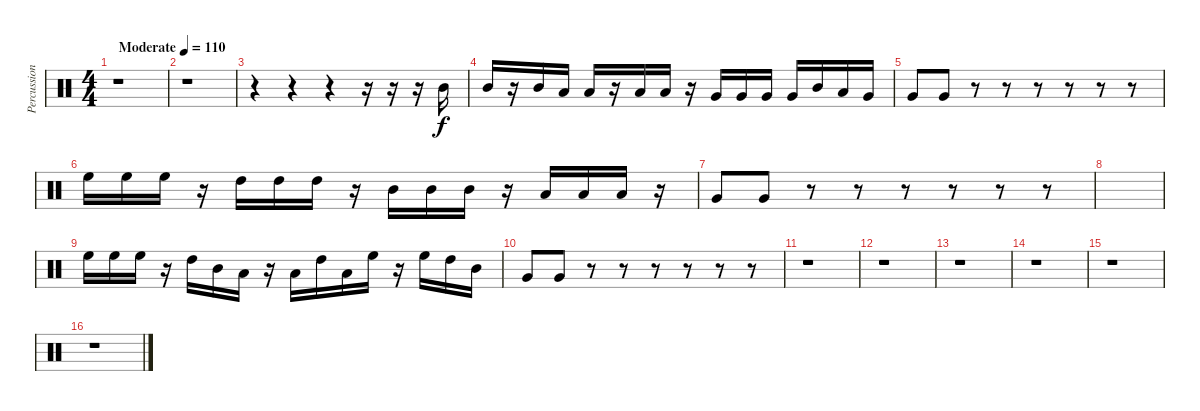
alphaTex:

\track ("Percussion" "Percussion") {instrument percussion}
\staff {score}
\articulation defaults
\ts (4 4)
\tempo (110 "Moderate")
\clef neutral
\ks c
r.1{dy f} |
r.1 |
r.4 r.4 r.4 r.16 r.16 r.16 "Mid Tom (hit)".16 |
"Mid Tom (hit)".16 r.16 "Mid Tom (hit)".16 "Low Tom (hit)".16 "Low Tom (hit)".16 r.16 "Low Tom (hit)".16 "Low Tom (hit)".16 r.16 "Very Low Tom (hit)".16 "Very Low Tom (hit)".16 "Very Low Tom (hit)".16 "Very Low Tom (hit)".16 "Mid Tom (hit)".16 "Low Tom (hit)".16 "Very Low Tom (hit)".16 |
"Very Low Tom (hit)".8 "Very Low Tom (hit)".8 r.8 r.8 r.8 r.8 r.8 r.8 |
"High Floor Tom (hit)".16 "High Floor Tom (hit)".16 "High Floor Tom (hit)".16 r.16 "High Tom (hit)".16 "High Tom (hit)".16 "High Tom (hit)".16 r.16 "Mid Tom (hit)".16 "Mid Tom (hit)".16 "Mid Tom (hit)".16 r.16 "Low Tom (hit)".16 "Low Tom (hit)".16 "Low Tom (hit)".16 r.16 |
"Very Low Tom (hit)".8 "Very Low Tom (hit)".8 r.8 r.8 r.8 r.8 r.8 r.8 |
|
"High Floor Tom (hit)".16 "High Floor Tom (hit)".16 "High Floor Tom (hit)".16 r.16 "High Tom (hit)".16 "Mid Tom (hit)".16 "Low Tom (hit)".16 r.16 "Low Tom (hit)".16 "High Tom (hit)".16 "Low Tom (hit)".16 "High Floor Tom (hit)".16 r.16 "High Floor Tom (hit)".16 "High Tom (hit)".16 "Mid Tom (hit)".16 |
"Very Low Tom (hit)".8 "Very Low Tom (hit)".8 r.8 r.8 r.8 r.8 r.8 r.8 |
r.1 |
r.1 |
r.1 |
r.1 |
r.1 |
r.1
